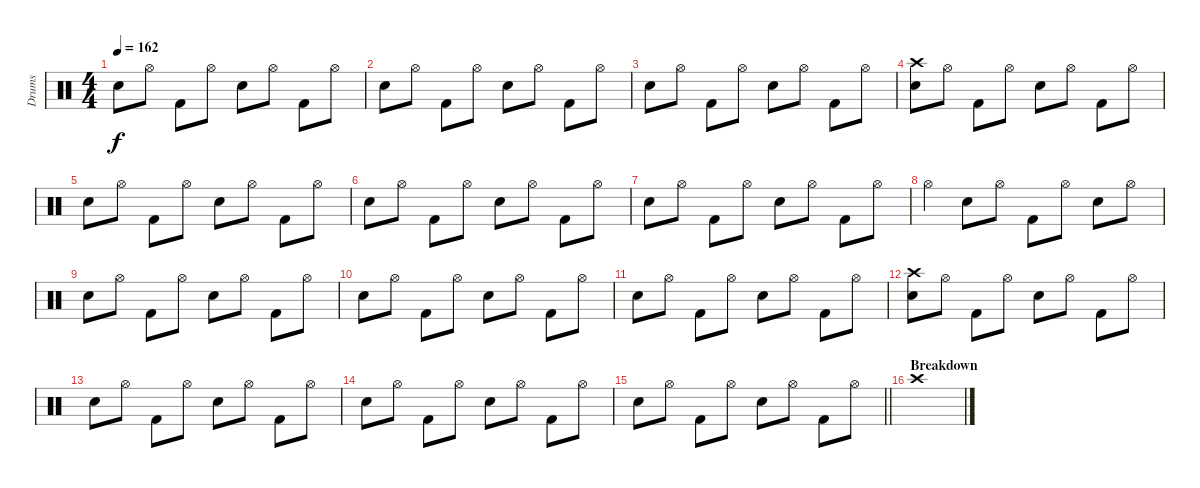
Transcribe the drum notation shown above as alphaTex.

\track ("Drums" "Drums") {instrument percussion}
\staff {score}
\articulation defaults
\ts (4 4)
\tempo 162
\clef neutral
\ks c "Electric Snare (hit)".8{dy f} "Hi-Hat (open)".8 "Kick (hit) 2".8 "Hi-Hat (open)".8 "Electric Snare (hit)".8 "Hi-Hat (open)".8 "Kick (hit) 2".8 "Hi-Hat (open)".8
|
"Electric Snare (hit)".8 "Hi-Hat (open)".8 "Kick (hit) 2".8 "Hi-Hat (open)".8 "Electric Snare (hit)".8 "Hi-Hat (open)".8 "Kick (hit) 2".8 "Hi-Hat (open)".8 |
"Electric Snare (hit)".8 "Hi-Hat (open)".8 "Kick (hit) 2".8 "Hi-Hat (open)".8 "Electric Snare (hit)".8 "Hi-Hat (open)".8 "Kick (hit) 2".8 "Hi-Hat (open)".8 |
("Crash high (hit)" "Electric Snare (hit)").8 "Hi-Hat (open)".8 "Kick (hit) 2".8 "Hi-Hat (open)".8 "Electric Snare (hit)".8 "Hi-Hat (open)".8 "Kick (hit) 2".8 "Hi-Hat (open)".8 |
"Electric Snare (hit)".8 "Hi-Hat (open)".8 "Kick (hit) 2".8 "Hi-Hat (open)".8 "Electric Snare (hit)".8 "Hi-Hat (open)".8 "Kick (hit) 2".8 "Hi-Hat (open)".8 |
"Electric Snare (hit)".8 "Hi-Hat (open)".8 "Kick (hit) 2".8 "Hi-Hat (open)".8 "Electric Snare (hit)".8 "Hi-Hat (open)".8 "Kick (hit) 2".8 "Hi-Hat (open)".8 |
"Electric Snare (hit)".8 "Hi-Hat (open)".8 "Kick (hit) 2".8 "Hi-Hat (open)".8 "Electric Snare (hit)".8 "Hi-Hat (open)".8 "Kick (hit) 2".8 "Hi-Hat (open)".8 |
"Hi-Hat (open)".4 "Electric Snare (hit)".8 "Hi-Hat (open)".8 "Kick (hit) 2".8 "Hi-Hat (open)".8 "Electric Snare (hit)".8 "Hi-Hat (open)".8 |
"Electric Snare (hit)".8 "Hi-Hat (open)".8 "Kick (hit) 2".8 "Hi-Hat (open)".8 "Electric Snare (hit)".8 "Hi-Hat (open)".8 "Kick (hit) 2".8 "Hi-Hat (open)".8 |
"Electric Snare (hit)".8 "Hi-Hat (open)".8 "Kick (hit) 2".8 "Hi-Hat (open)".8 "Electric Snare (hit)".8 "Hi-Hat (open)".8 "Kick (hit) 2".8 "Hi-Hat (open)".8 |
"Electric Snare (hit)".8 "Hi-Hat (open)".8 "Kick (hit) 2".8 "Hi-Hat (open)".8 "Electric Snare (hit)".8 "Hi-Hat (open)".8 "Kick (hit) 2".8 "Hi-Hat (open)".8 |
("Crash high (hit)" "Electric Snare (hit)").8 "Hi-Hat (open)".8 "Kick (hit) 2".8 "Hi-Hat (open)".8 "Electric Snare (hit)".8 "Hi-Hat (open)".8 "Kick (hit) 2".8 "Hi-Hat (open)".8 |
"Electric Snare (hit)".8 "Hi-Hat (open)".8 "Kick (hit) 2".8 "Hi-Hat (open)".8 "Electric Snare (hit)".8 "Hi-Hat (open)".8 "Kick (hit) 2".8 "Hi-Hat (open)".8 |
"Electric Snare (hit)".8 "Hi-Hat (open)".8 "Kick (hit) 2".8 "Hi-Hat (open)".8 "Electric Snare (hit)".8 "Hi-Hat (open)".8 "Kick (hit) 2".8 "Hi-Hat (open)".8 |
\barLineRight lightlight "Electric Snare (hit)".8 "Hi-Hat (open)".8 "Kick (hit) 2".8 "Hi-Hat (open)".8 "Electric Snare (hit)".8 "Hi-Hat (open)".8 "Kick (hit) 2".8 "Hi-Hat (open)".8
|
\section ("" "Breakdown")
"Crash high (hit)".1{volume 0}
